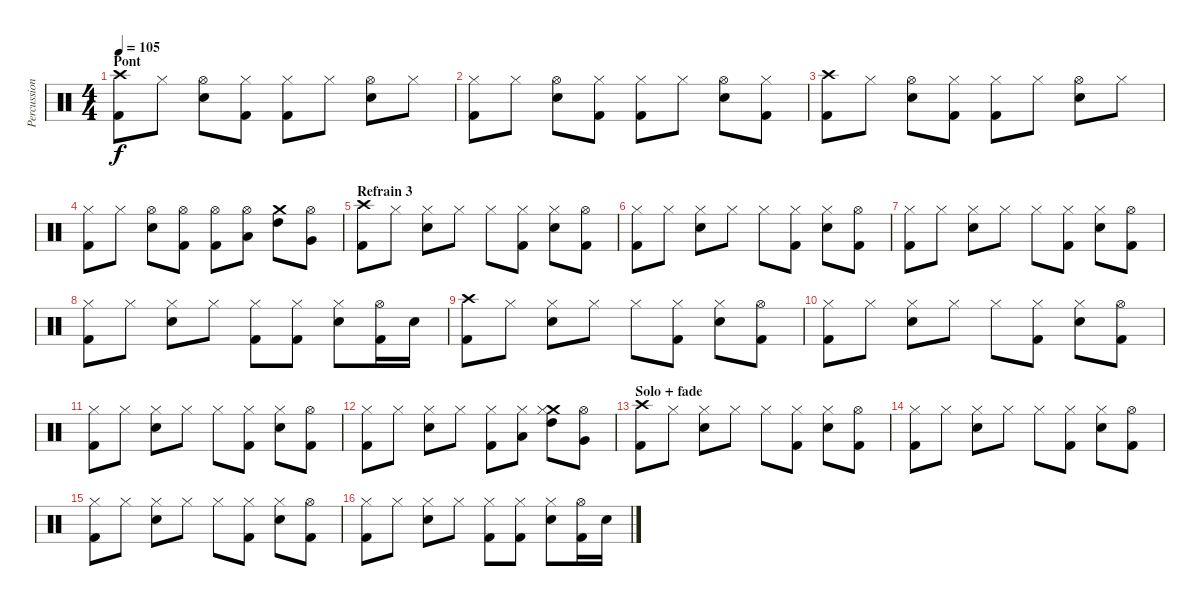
\track ("Percussions" "Percussion") {instrument percussion}
\staff {score}
\articulation defaults
\ts (4 4)
\section ("" "Pont")
\tempo 105
\clef neutral
\ks c
("Kick (hit) 2" "Crash high (hit)").8{dy f} "Hi-Hat (closed)".8 ("Snare (hit) 2" "Hi-Hat (open)").8 ("Kick (hit) 2" "Hi-Hat (closed)").8 ("Kick (hit) 2" "Hi-Hat (closed)").8 "Hi-Hat (closed)".8 ("Snare (hit) 2" "Hi-Hat (open)").8 "Hi-Hat (closed)".8 |
("Kick (hit) 2" "Hi-Hat (closed)").8 "Hi-Hat (closed)".8 ("Snare (hit) 2" "Hi-Hat (open)").8 ("Kick (hit) 2" "Hi-Hat (closed)").8 ("Kick (hit) 2" "Hi-Hat (closed)").8 "Hi-Hat (closed)".8 ("Snare (hit) 2" "Hi-Hat (open)").8 ("Kick (hit) 2" "Hi-Hat (closed)").8 |
("Kick (hit) 2" "Crash high (hit)").8 "Hi-Hat (closed)".8 ("Snare (hit) 2" "Hi-Hat (open)").8 ("Kick (hit) 2" "Hi-Hat (closed)").8 ("Kick (hit) 2" "Hi-Hat (closed)").8 "Hi-Hat (closed)".8 ("Snare (hit) 2" "Hi-Hat (open)").8 "Hi-Hat (closed)".8 |
("Kick (hit) 2" "Hi-Hat (closed)").8 "Hi-Hat (closed)".8 ("Snare (hit) 2" "Hi-Hat (open)").8 ("Kick (hit) 2" "Hi-Hat (open)").8 ("Kick (hit) 2" "Hi-Hat (open)").8 ("Low Tom (hit)" "Hi-Hat (open)").8 ("Crash medium (hit)" "High Tom (hit)").8 ("Very Low Tom (hit)" "Hi-Hat (open)").8 |
\section ("" "Refrain 3")
("Kick (hit) 2" "Crash high (hit)").8 "Hi-Hat (closed)".8 ("Snare (hit) 2" "Hi-Hat (closed)").8 "Hi-Hat (closed)".8 "Hi-Hat (closed)".8 ("Kick (hit) 2" "Hi-Hat (closed)").8 ("Snare (hit) 2" "Hi-Hat (closed)").8 ("Kick (hit) 2" "Hi-Hat (open)").8 |
("Kick (hit) 2" "Hi-Hat (closed)").8 "Hi-Hat (closed)".8 ("Snare (hit) 2" "Hi-Hat (closed)").8 "Hi-Hat (closed)".8 "Hi-Hat (closed)".8 ("Kick (hit) 2" "Hi-Hat (closed)").8 ("Snare (hit) 2" "Hi-Hat (closed)").8 ("Kick (hit) 2" "Hi-Hat (open)").8 |
("Kick (hit) 2" "Hi-Hat (closed)").8 "Hi-Hat (closed)".8 ("Snare (hit) 2" "Hi-Hat (closed)").8 "Hi-Hat (closed)".8 "Hi-Hat (closed)".8 ("Kick (hit) 2" "Hi-Hat (closed)").8 ("Snare (hit) 2" "Hi-Hat (closed)").8 ("Kick (hit) 2" "Hi-Hat (open)").8 |
("Kick (hit) 2" "Hi-Hat (closed)").8 "Hi-Hat (closed)".8 ("Snare (hit) 2" "Hi-Hat (closed)").8 "Hi-Hat (closed)".8 ("Kick (hit) 2" "Hi-Hat (closed)").8 ("Kick (hit) 2" "Hi-Hat (closed)").8 ("Snare (hit) 2" "Hi-Hat (closed)").8 ("Kick (hit) 2" "Hi-Hat (open)").16 "Snare (hit) 2".16 |
("Kick (hit) 2" "Crash high (hit)").8 "Hi-Hat (closed)".8 ("Snare (hit) 2" "Hi-Hat (closed)").8 "Hi-Hat (closed)".8 "Hi-Hat (closed)".8 ("Kick (hit) 2" "Hi-Hat (closed)").8 ("Snare (hit) 2" "Hi-Hat (closed)").8 ("Kick (hit) 2" "Hi-Hat (open)").8 |
("Kick (hit) 2" "Hi-Hat (closed)").8 "Hi-Hat (closed)".8 ("Snare (hit) 2" "Hi-Hat (closed)").8 "Hi-Hat (closed)".8 "Hi-Hat (closed)".8 ("Kick (hit) 2" "Hi-Hat (closed)").8 ("Snare (hit) 2" "Hi-Hat (closed)").8 ("Kick (hit) 2" "Hi-Hat (open)").8 |
("Kick (hit) 2" "Hi-Hat (closed)").8 "Hi-Hat (closed)".8 ("Snare (hit) 2" "Hi-Hat (closed)").8 "Hi-Hat (closed)".8 "Hi-Hat (closed)".8 ("Kick (hit) 2" "Hi-Hat (closed)").8 ("Snare (hit) 2" "Hi-Hat (closed)").8 ("Kick (hit) 2" "Hi-Hat (open)").8 |
("Kick (hit) 2" "Hi-Hat (closed)").8 "Hi-Hat (closed)".8 ("Snare (hit) 2" "Hi-Hat (closed)").8 "Hi-Hat (closed)".8 ("Kick (hit) 2" "Hi-Hat (closed)").8 ("Low Tom (hit)" "Hi-Hat (closed)").8 ("Crash medium (hit)" "High Tom (hit)" "Hi-Hat (closed)").8 ("Very Low Tom (hit)" "Hi-Hat (open)").8 |
\section ("" "Solo + fade")
("Kick (hit) 2" "Crash high (hit)").8{volume 12} "Hi-Hat (closed)".8 ("Snare (hit) 2" "Hi-Hat (closed)").8 "Hi-Hat (closed)".8 "Hi-Hat (closed)".8 ("Kick (hit) 2" "Hi-Hat (closed)").8 ("Snare (hit) 2" "Hi-Hat (closed)").8 ("Kick (hit) 2" "Hi-Hat (open)").8 |
("Kick (hit) 2" "Hi-Hat (closed)").8 "Hi-Hat (closed)".8 ("Snare (hit) 2" "Hi-Hat (closed)").8 "Hi-Hat (closed)".8 "Hi-Hat (closed)".8 ("Kick (hit) 2" "Hi-Hat (closed)").8 ("Snare (hit) 2" "Hi-Hat (closed)").8 ("Kick (hit) 2" "Hi-Hat (open)").8 |
("Kick (hit) 2" "Hi-Hat (closed)").8 "Hi-Hat (closed)".8 ("Snare (hit) 2" "Hi-Hat (closed)").8 "Hi-Hat (closed)".8 "Hi-Hat (closed)".8 ("Kick (hit) 2" "Hi-Hat (closed)").8 ("Snare (hit) 2" "Hi-Hat (closed)").8 ("Kick (hit) 2" "Hi-Hat (open)").8 |
("Kick (hit) 2" "Hi-Hat (closed)").8 "Hi-Hat (closed)".8 ("Snare (hit) 2" "Hi-Hat (closed)").8 "Hi-Hat (closed)".8 ("Kick (hit) 2" "Hi-Hat (closed)").8 ("Kick (hit) 2" "Hi-Hat (closed)").8 ("Snare (hit) 2" "Hi-Hat (closed)").8 ("Kick (hit) 2" "Hi-Hat (open)").16 "Snare (hit) 2".16
